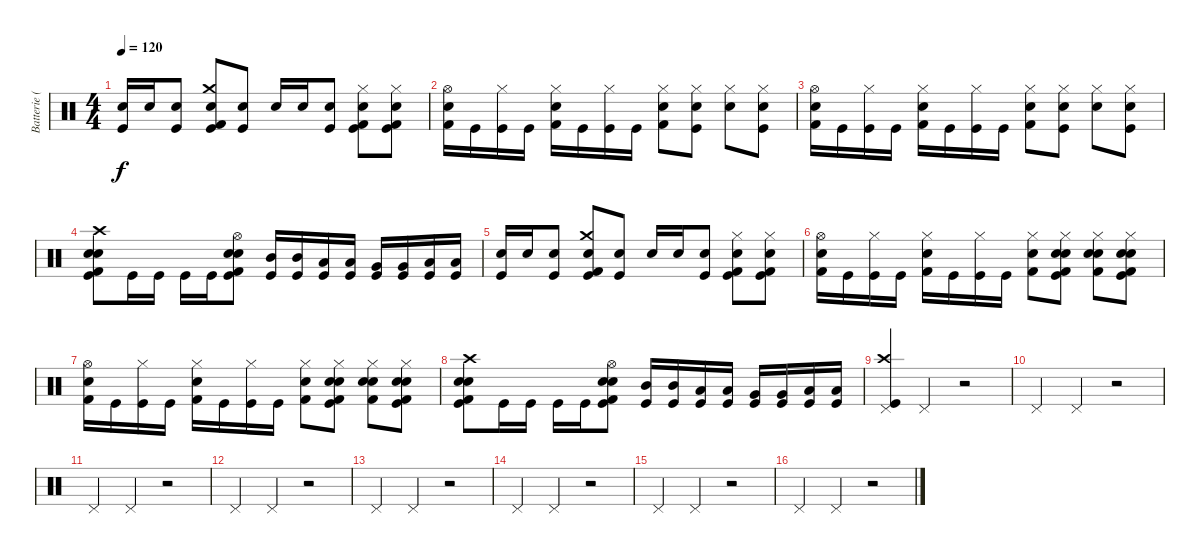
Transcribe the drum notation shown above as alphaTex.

\track ("Batterie (Ced)" "Batterie (") {instrument percussion}
\staff {score}
\articulation defaults
\ts (4 4)
\tempo 120
\clef neutral
\ks c
("Snare (hit) 2" "Kick (hit)").16{dy f} "Snare (hit) 2".16 ("Snare (hit) 2" "Kick (hit)").8 ("Crash medium (hit)" "Electric Snare (hit)" "Kick (hit) 2" "Kick (hit)").8 ("Snare (hit) 2" "Kick (hit)").8 "Snare (hit) 2".16 "Snare (hit) 2".16 ("Snare (hit) 2" "Kick (hit)").8 ("Hi-Hat (closed)" "Electric Snare (hit)" "Kick (hit) 2" "Kick (hit)").8 ("Hi-Hat (closed)" "Electric Snare (hit)" "Kick (hit) 2" "Kick (hit)").8 |
("Hi-Hat (open)" "Electric Snare (hit)" "Kick (hit) 2").16 "Kick (hit)".16 ("Hi-Hat (closed)" "Kick (hit)").16 "Kick (hit)".16 ("Hi-Hat (closed)" "Electric Snare (hit)" "Kick (hit) 2").16 "Kick (hit)".16 ("Hi-Hat (closed)" "Kick (hit)").16 "Kick (hit)".16 ("Hi-Hat (closed)" "Electric Snare (hit)" "Kick (hit) 2").8 ("Hi-Hat (closed)" "Snare (hit) 2" "Kick (hit)").8 ("Hi-Hat (closed)" "Snare (hit) 2").8 ("Hi-Hat (closed)" "Snare (hit) 2" "Kick (hit)").8 |
("Hi-Hat (open)" "Electric Snare (hit)" "Kick (hit) 2").16 "Kick (hit)".16 ("Hi-Hat (closed)" "Kick (hit)").16 "Kick (hit)".16 ("Hi-Hat (closed)" "Electric Snare (hit)" "Kick (hit) 2").16 "Kick (hit)".16 ("Hi-Hat (closed)" "Kick (hit)").16 "Kick (hit)".16 ("Hi-Hat (closed)" "Electric Snare (hit)" "Kick (hit) 2").8 ("Hi-Hat (closed)" "Snare (hit) 2" "Kick (hit)").8 ("Hi-Hat (closed)" "Snare (hit) 2").8 ("Hi-Hat (closed)" "Snare (hit) 2" "Kick (hit)").8 |
("Crash high (hit)" "Snare (hit) 2" "Electric Snare (hit)" "Kick (hit)" "Kick (hit) 2").8 "Kick (hit)".16 "Kick (hit)".16 "Kick (hit)".16 "Kick (hit)".16 ("Hi-Hat (open)" "Snare (hit) 2" "Electric Snare (hit)" "Kick (hit)" "Kick (hit) 2").8 ("Mid Tom (hit)" "Kick (hit)").16 ("Mid Tom (hit)" "Kick (hit)").16 ("Low Tom (hit)" "Kick (hit)").16 ("Low Tom (hit)" "Kick (hit)").16 ("Very Low Tom (hit)" "Kick (hit)").16 ("Very Low Tom (hit)" "Kick (hit)").16 ("Low Floor Tom (hit)" "Kick (hit)").16 ("Low Floor Tom (hit)" "Kick (hit)").16 |
("Snare (hit) 2" "Kick (hit)").16 "Snare (hit) 2".16 ("Snare (hit) 2" "Kick (hit)").8 ("Crash medium (hit)" "Electric Snare (hit)" "Kick (hit) 2" "Kick (hit)").8 ("Snare (hit) 2" "Kick (hit)").8 "Snare (hit) 2".16 "Snare (hit) 2".16 ("Snare (hit) 2" "Kick (hit)").8 ("Hi-Hat (closed)" "Electric Snare (hit)" "Kick (hit) 2" "Kick (hit)").8 ("Hi-Hat (closed)" "Electric Snare (hit)" "Kick (hit) 2" "Kick (hit)").8 |
("Hi-Hat (open)" "Electric Snare (hit)" "Kick (hit) 2").16 "Kick (hit)".16 ("Hi-Hat (closed)" "Kick (hit)").16 "Kick (hit)".16 ("Hi-Hat (closed)" "Electric Snare (hit)" "Kick (hit) 2").16 "Kick (hit)".16 ("Hi-Hat (closed)" "Kick (hit)").16 "Kick (hit)".16 ("Hi-Hat (closed)" "Electric Snare (hit)" "Kick (hit) 2").8 ("Hi-Hat (closed)" "Snare (hit) 2" "Electric Snare (hit)" "Kick (hit) 2" "Kick (hit)").8 ("Hi-Hat (closed)" "Snare (hit) 2" "Electric Snare (hit)" "Kick (hit) 2").8 ("Hi-Hat (closed)" "Snare (hit) 2" "Electric Snare (hit)" "Kick (hit) 2" "Kick (hit)").8 |
("Hi-Hat (open)" "Electric Snare (hit)" "Kick (hit) 2").16 "Kick (hit)".16 ("Hi-Hat (closed)" "Kick (hit)").16 "Kick (hit)".16 ("Hi-Hat (closed)" "Electric Snare (hit)" "Kick (hit) 2").16 "Kick (hit)".16 ("Hi-Hat (closed)" "Kick (hit)").16 "Kick (hit)".16 ("Hi-Hat (closed)" "Electric Snare (hit)" "Kick (hit) 2").8 ("Hi-Hat (closed)" "Snare (hit) 2" "Electric Snare (hit)" "Kick (hit) 2" "Kick (hit)").8 ("Hi-Hat (closed)" "Snare (hit) 2" "Electric Snare (hit)" "Kick (hit) 2").8 ("Hi-Hat (closed)" "Snare (hit) 2" "Electric Snare (hit)" "Kick (hit) 2" "Kick (hit)").8 |
("Crash high (hit)" "Snare (hit) 2" "Electric Snare (hit)" "Kick (hit)" "Kick (hit) 2").8 "Kick (hit)".16 "Kick (hit)".16 "Kick (hit)".16 "Kick (hit)".16 ("Hi-Hat (open)" "Snare (hit) 2" "Electric Snare (hit)" "Kick (hit)" "Kick (hit) 2").8 ("Mid Tom (hit)" "Kick (hit)").16 ("Mid Tom (hit)" "Kick (hit)").16 ("Low Tom (hit)" "Kick (hit)").16 ("Low Tom (hit)" "Kick (hit)").16 ("Very Low Tom (hit)" "Kick (hit)").16 ("Very Low Tom (hit)" "Kick (hit)").16 ("Low Floor Tom (hit)" "Kick (hit)").16 ("Low Floor Tom (hit)" "Kick (hit)").16 |
("Pedal Hi-Hat (hit)" "Crash high (hit)" "Kick (hit)").4 "Pedal Hi-Hat (hit)".4 r.2 |
"Pedal Hi-Hat (hit)".4 "Pedal Hi-Hat (hit)".4 r.2 |
"Pedal Hi-Hat (hit)".4 "Pedal Hi-Hat (hit)".4 r.2 |
"Pedal Hi-Hat (hit)".4 "Pedal Hi-Hat (hit)".4 r.2 |
"Pedal Hi-Hat (hit)".4 "Pedal Hi-Hat (hit)".4 r.2 |
"Pedal Hi-Hat (hit)".4 "Pedal Hi-Hat (hit)".4 r.2 |
"Pedal Hi-Hat (hit)".4 "Pedal Hi-Hat (hit)".4 r.2 |
"Pedal Hi-Hat (hit)".4 "Pedal Hi-Hat (hit)".4 r.2
